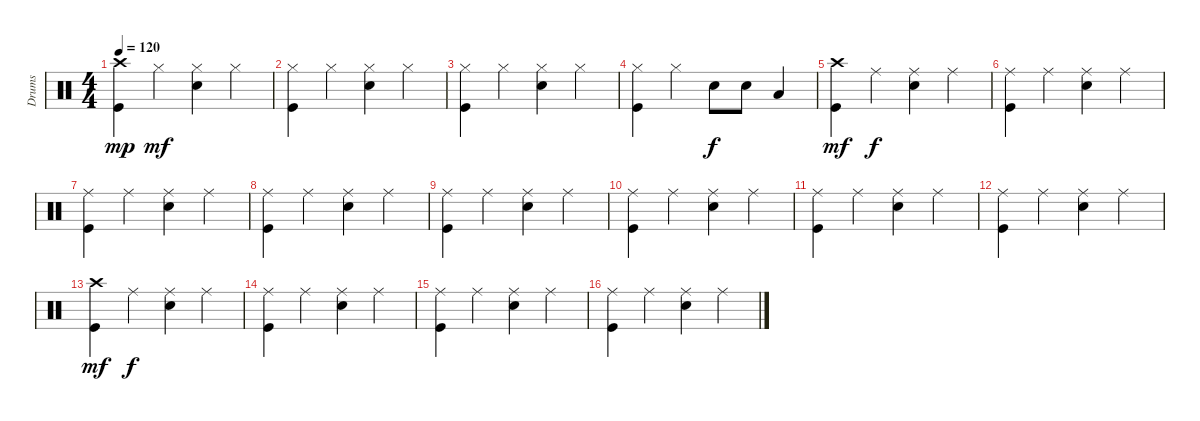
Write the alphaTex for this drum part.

\track ("Drums" "Drums") {instrument percussion}
\staff {score}
\articulation defaults
\ts (4 4)
\tempo 120
\clef neutral
\ks c
("Crash high (hit)" "Kick (hit)").4{dy mp} "Hi-Hat (closed)".4{dy mf} ("Hi-Hat (closed)" "Snare (hit) 2").4 "Hi-Hat (closed)".4 |
("Hi-Hat (closed)" "Kick (hit)").4 "Hi-Hat (closed)".4 ("Hi-Hat (closed)" "Snare (hit) 2").4 "Hi-Hat (closed)".4 |
("Hi-Hat (closed)" "Kick (hit)").4 "Hi-Hat (closed)".4 ("Hi-Hat (closed)" "Snare (hit) 2").4 "Hi-Hat (closed)".4 |
("Hi-Hat (closed)" "Kick (hit)").4 "Hi-Hat (closed)".4 "Snare (hit) 2".8{dy f} "Snare (hit) 2".8 "Low Tom (hit)".4 |
("Crash high (hit)" "Kick (hit)").4{dy mf} "Ride (middle)".4{dy f} ("Ride (middle)" "Snare (hit) 2").4 "Ride (middle)".4 |
("Ride (middle)" "Kick (hit)").4 "Ride (middle)".4 ("Ride (middle)" "Snare (hit) 2").4 "Ride (middle)".4 |
("Ride (middle)" "Kick (hit)").4 "Ride (middle)".4 ("Ride (middle)" "Snare (hit) 2").4 "Ride (middle)".4 |
("Ride (middle)" "Kick (hit)").4 "Ride (middle)".4 ("Ride (middle)" "Snare (hit) 2").4 "Ride (middle)".4 |
("Ride (middle)" "Kick (hit)").4 "Ride (middle)".4 ("Ride (middle)" "Snare (hit) 2").4 "Ride (middle)".4 |
("Ride (middle)" "Kick (hit)").4 "Ride (middle)".4 ("Ride (middle)" "Snare (hit) 2").4 "Ride (middle)".4 |
("Ride (middle)" "Kick (hit)").4 "Ride (middle)".4 ("Ride (middle)" "Snare (hit) 2").4 "Ride (middle)".4 |
("Ride (middle)" "Kick (hit)").4 "Ride (middle)".4 ("Ride (middle)" "Snare (hit) 2").4 "Ride (middle)".4 |
("Crash high (hit)" "Kick (hit)").4{dy mf} "Ride (middle)".4{dy f} ("Ride (middle)" "Snare (hit) 2").4 "Ride (middle)".4 |
("Ride (middle)" "Kick (hit)").4 "Ride (middle)".4 ("Ride (middle)" "Snare (hit) 2").4 "Ride (middle)".4 |
("Ride (middle)" "Kick (hit)").4 "Ride (middle)".4 ("Ride (middle)" "Snare (hit) 2").4 "Ride (middle)".4 |
("Ride (middle)" "Kick (hit)").4 "Ride (middle)".4 ("Ride (middle)" "Snare (hit) 2").4 "Ride (middle)".4
